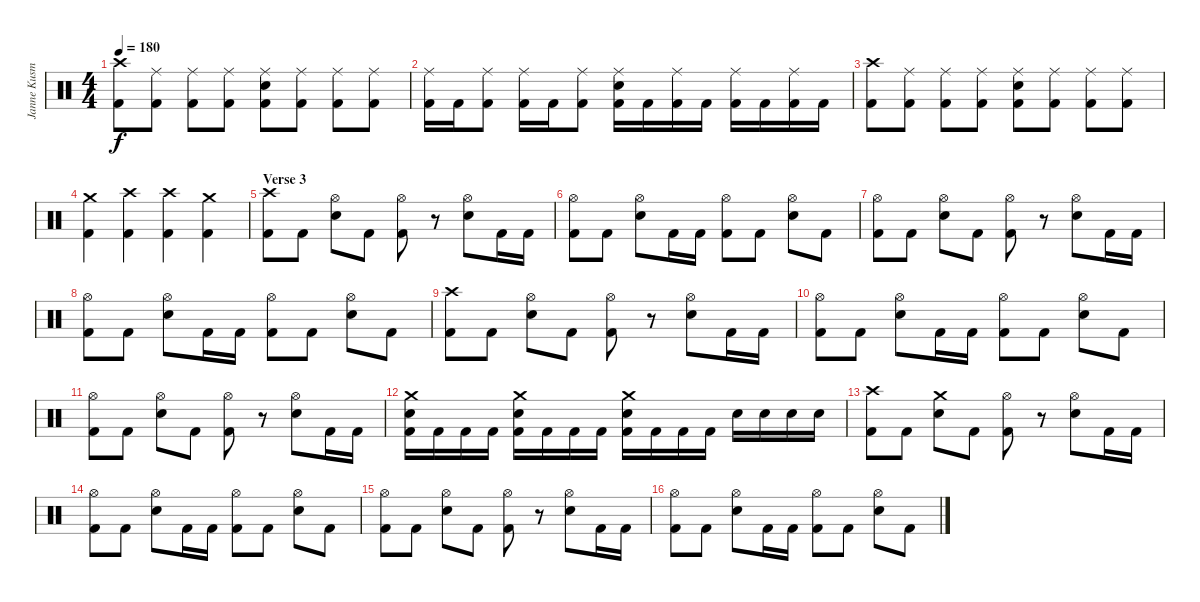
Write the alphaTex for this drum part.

\track ("Janne Kusmin - Drums" "Janne Kusm") {instrument percussion}
\staff {score}
\articulation defaults
\ts (4 4)
\tempo 180
\clef neutral
\ks c
("Crash high (hit)" "Kick (hit) 2").8{dy f} ("Ride (middle)" "Kick (hit) 2").8 ("Ride (middle)" "Kick (hit) 2").8 ("Ride (middle)" "Kick (hit) 2").8 ("Ride (middle)" "Electric Snare (hit)" "Kick (hit) 2").8 ("Ride (middle)" "Kick (hit) 2").8 ("Ride (middle)" "Kick (hit) 2").8 ("Ride (middle)" "Kick (hit) 2").8 |
("Ride (middle)" "Kick (hit) 2").16 "Kick (hit) 2".16 ("Ride (middle)" "Kick (hit) 2").8 ("Ride (middle)" "Kick (hit) 2").16 "Kick (hit) 2".16 ("Ride (middle)" "Kick (hit) 2").8 ("Ride (middle)" "Electric Snare (hit)" "Kick (hit) 2").16 "Kick (hit) 2".16 ("Ride (middle)" "Kick (hit) 2").16 "Kick (hit) 2".16 ("Ride (middle)" "Kick (hit) 2").16 "Kick (hit) 2".16 ("Ride (middle)" "Kick (hit) 2").16 "Kick (hit) 2".16 |
("Crash high (hit)" "Kick (hit) 2").8 ("Ride (middle)" "Kick (hit) 2").8 ("Ride (middle)" "Kick (hit) 2").8 ("Ride (middle)" "Kick (hit) 2").8 ("Ride (middle)" "Electric Snare (hit)" "Kick (hit) 2").8 ("Ride (middle)" "Kick (hit) 2").8 ("Ride (middle)" "Kick (hit) 2").8 ("Ride (middle)" "Kick (hit) 2").8 |
("Crash medium (hit)" "Kick (hit) 2").4 ("Crash high (hit)" "Kick (hit) 2").4 ("Crash high (hit)" "Kick (hit) 2").4 ("Crash medium (hit)" "Kick (hit) 2").4 |
\section ("" "Verse 3")
("Crash high (hit)" "Kick (hit) 2").8 "Kick (hit) 2".8 ("Hi-Hat (open)" "Electric Snare (hit)").8 "Kick (hit) 2".8 ("Hi-Hat (open)" "Kick (hit) 2").8 r.8 ("Hi-Hat (open)" "Electric Snare (hit)").8 "Kick (hit) 2".16 "Kick (hit) 2".16 |
("Hi-Hat (open)" "Kick (hit) 2").8 "Kick (hit) 2".8 ("Hi-Hat (open)" "Electric Snare (hit)").8 "Kick (hit) 2".16 "Kick (hit) 2".16 ("Hi-Hat (open)" "Kick (hit) 2").8 "Kick (hit) 2".8 ("Hi-Hat (open)" "Electric Snare (hit)").8 "Kick (hit) 2".8 |
("Hi-Hat (open)" "Kick (hit) 2").8 "Kick (hit) 2".8 ("Hi-Hat (open)" "Electric Snare (hit)").8 "Kick (hit) 2".8 ("Hi-Hat (open)" "Kick (hit) 2").8 r.8 ("Hi-Hat (open)" "Electric Snare (hit)").8 "Kick (hit) 2".16 "Kick (hit) 2".16 |
("Hi-Hat (open)" "Kick (hit) 2").8 "Kick (hit) 2".8 ("Hi-Hat (open)" "Electric Snare (hit)").8 "Kick (hit) 2".16 "Kick (hit) 2".16 ("Hi-Hat (open)" "Kick (hit) 2").8 "Kick (hit) 2".8 ("Hi-Hat (open)" "Electric Snare (hit)").8 "Kick (hit) 2".8 |
("Crash high (hit)" "Kick (hit) 2").8 "Kick (hit) 2".8 ("Hi-Hat (open)" "Electric Snare (hit)").8 "Kick (hit) 2".8 ("Hi-Hat (open)" "Kick (hit) 2").8 r.8 ("Hi-Hat (open)" "Electric Snare (hit)").8 "Kick (hit) 2".16 "Kick (hit) 2".16 |
("Hi-Hat (open)" "Kick (hit) 2").8 "Kick (hit) 2".8 ("Hi-Hat (open)" "Electric Snare (hit)").8 "Kick (hit) 2".16 "Kick (hit) 2".16 ("Hi-Hat (open)" "Kick (hit) 2").8 "Kick (hit) 2".8 ("Hi-Hat (open)" "Electric Snare (hit)").8 "Kick (hit) 2".8 |
("Hi-Hat (open)" "Kick (hit) 2").8 "Kick (hit) 2".8 ("Hi-Hat (open)" "Electric Snare (hit)").8 "Kick (hit) 2".8 ("Hi-Hat (open)" "Kick (hit) 2").8 r.8 ("Hi-Hat (open)" "Electric Snare (hit)").8 "Kick (hit) 2".16 "Kick (hit) 2".16 |
("Crash medium (hit)" "Electric Snare (hit)" "Kick (hit) 2").16 "Kick (hit) 2".16 "Kick (hit) 2".16 "Kick (hit) 2".16 ("Crash medium (hit)" "Electric Snare (hit)" "Kick (hit) 2").16 "Kick (hit) 2".16 "Kick (hit) 2".16 "Kick (hit) 2".16 ("Crash medium (hit)" "Electric Snare (hit)" "Kick (hit) 2").16 "Kick (hit) 2".16 "Kick (hit) 2".16 "Kick (hit) 2".16 "Electric Snare (hit)".16 "Electric Snare (hit)".16 "Electric Snare (hit)".16 "Electric Snare (hit)".16 |
("Crash high (hit)" "Kick (hit) 2").8 "Kick (hit) 2".8 ("Crash medium (hit)" "Electric Snare (hit)").8 "Kick (hit) 2".8 ("Hi-Hat (open)" "Kick (hit) 2").8 r.8 ("Hi-Hat (open)" "Electric Snare (hit)").8 "Kick (hit) 2".16 "Kick (hit) 2".16 |
("Hi-Hat (open)" "Kick (hit) 2").8 "Kick (hit) 2".8 ("Hi-Hat (open)" "Electric Snare (hit)").8 "Kick (hit) 2".16 "Kick (hit) 2".16 ("Hi-Hat (open)" "Kick (hit) 2").8 "Kick (hit) 2".8 ("Hi-Hat (open)" "Electric Snare (hit)").8 "Kick (hit) 2".8 |
("Hi-Hat (open)" "Kick (hit) 2").8 "Kick (hit) 2".8 ("Hi-Hat (open)" "Electric Snare (hit)").8 "Kick (hit) 2".8 ("Hi-Hat (open)" "Kick (hit) 2").8 r.8 ("Hi-Hat (open)" "Electric Snare (hit)").8 "Kick (hit) 2".16 "Kick (hit) 2".16 |
("Hi-Hat (open)" "Kick (hit) 2").8 "Kick (hit) 2".8 ("Hi-Hat (open)" "Electric Snare (hit)").8 "Kick (hit) 2".16 "Kick (hit) 2".16 ("Hi-Hat (open)" "Kick (hit) 2").8 "Kick (hit) 2".8 ("Hi-Hat (open)" "Electric Snare (hit)").8 "Kick (hit) 2".8
